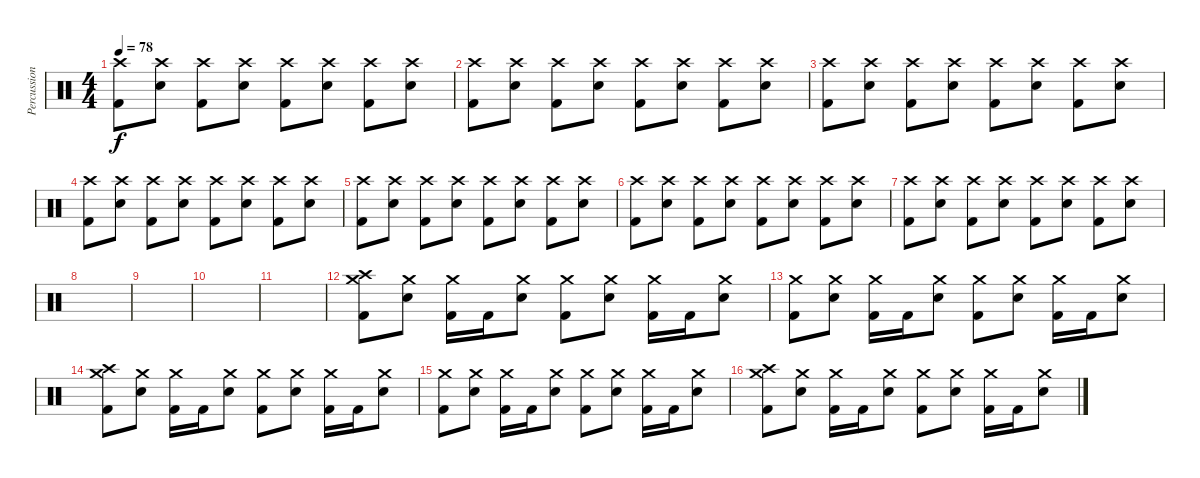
\track ("Percussioni" "Percussion") {instrument percussion}
\staff {score}
\articulation defaults
\ts (4 4)
\tempo 78
\clef neutral
\ks c
("Crash high (hit)" "Kick (hit) 2").8{dy f} ("Crash high (hit)" "Snare (hit) 2").8 ("Crash high (hit)" "Kick (hit) 2").8 ("Crash high (hit)" "Snare (hit) 2").8 ("Crash high (hit)" "Kick (hit) 2").8 ("Crash high (hit)" "Snare (hit) 2").8 ("Crash high (hit)" "Kick (hit) 2").8 ("Crash high (hit)" "Snare (hit) 2").8 |
("Crash high (hit)" "Kick (hit) 2").8 ("Crash high (hit)" "Snare (hit) 2").8 ("Crash high (hit)" "Kick (hit) 2").8 ("Crash high (hit)" "Snare (hit) 2").8 ("Crash high (hit)" "Kick (hit) 2").8 ("Crash high (hit)" "Snare (hit) 2").8 ("Crash high (hit)" "Kick (hit) 2").8 ("Crash high (hit)" "Snare (hit) 2").8 |
("Crash high (hit)" "Kick (hit) 2").8 ("Crash high (hit)" "Snare (hit) 2").8 ("Crash high (hit)" "Kick (hit) 2").8 ("Crash high (hit)" "Snare (hit) 2").8 ("Crash high (hit)" "Kick (hit) 2").8 ("Crash high (hit)" "Snare (hit) 2").8 ("Crash high (hit)" "Kick (hit) 2").8 ("Crash high (hit)" "Snare (hit) 2").8 |
("Crash high (hit)" "Kick (hit) 2").8 ("Crash high (hit)" "Snare (hit) 2").8 ("Crash high (hit)" "Kick (hit) 2").8 ("Crash high (hit)" "Snare (hit) 2").8 ("Crash high (hit)" "Kick (hit) 2").8 ("Crash high (hit)" "Snare (hit) 2").8 ("Crash high (hit)" "Kick (hit) 2").8 ("Crash high (hit)" "Snare (hit) 2").8 |
("Crash high (hit)" "Kick (hit) 2").8 ("Crash high (hit)" "Snare (hit) 2").8 ("Crash high (hit)" "Kick (hit) 2").8 ("Crash high (hit)" "Snare (hit) 2").8 ("Crash high (hit)" "Kick (hit) 2").8 ("Crash high (hit)" "Snare (hit) 2").8 ("Crash high (hit)" "Kick (hit) 2").8 ("Crash high (hit)" "Snare (hit) 2").8 |
("Crash high (hit)" "Kick (hit) 2").8 ("Crash high (hit)" "Snare (hit) 2").8 ("Crash high (hit)" "Kick (hit) 2").8 ("Crash high (hit)" "Snare (hit) 2").8 ("Crash high (hit)" "Kick (hit) 2").8 ("Crash high (hit)" "Snare (hit) 2").8 ("Crash high (hit)" "Kick (hit) 2").8 ("Crash high (hit)" "Snare (hit) 2").8 |
("Crash high (hit)" "Kick (hit) 2").8 ("Crash high (hit)" "Snare (hit) 2").8 ("Crash high (hit)" "Kick (hit) 2").8 ("Crash high (hit)" "Snare (hit) 2").8 ("Crash high (hit)" "Kick (hit) 2").8 ("Crash high (hit)" "Snare (hit) 2").8 ("Crash high (hit)" "Kick (hit) 2").8 ("Crash high (hit)" "Snare (hit) 2").8 |
|
|
|
|
("Crash high (hit)" "Crash medium (hit)" "Kick (hit) 2").8 ("Crash medium (hit)" "Snare (hit) 2").8 ("Crash medium (hit)" "Kick (hit) 2").16 "Kick (hit) 2".16 ("Crash medium (hit)" "Snare (hit) 2").8 ("Crash medium (hit)" "Kick (hit) 2").8 ("Crash medium (hit)" "Snare (hit) 2").8 ("Crash medium (hit)" "Kick (hit) 2").16 "Kick (hit) 2".16 ("Crash medium (hit)" "Snare (hit) 2").8 |
("Crash medium (hit)" "Kick (hit) 2").8 ("Crash medium (hit)" "Snare (hit) 2").8 ("Crash medium (hit)" "Kick (hit) 2").16 "Kick (hit) 2".16 ("Crash medium (hit)" "Snare (hit) 2").8 ("Crash medium (hit)" "Kick (hit) 2").8 ("Crash medium (hit)" "Snare (hit) 2").8 ("Crash medium (hit)" "Kick (hit) 2").16 "Kick (hit) 2".16 ("Crash medium (hit)" "Snare (hit) 2").8 |
("Crash high (hit)" "Crash medium (hit)" "Kick (hit) 2").8 ("Crash medium (hit)" "Snare (hit) 2").8 ("Crash medium (hit)" "Kick (hit) 2").16 "Kick (hit) 2".16 ("Crash medium (hit)" "Snare (hit) 2").8 ("Crash medium (hit)" "Kick (hit) 2").8 ("Crash medium (hit)" "Snare (hit) 2").8 ("Crash medium (hit)" "Kick (hit) 2").16 "Kick (hit) 2".16 ("Crash medium (hit)" "Snare (hit) 2").8 |
("Crash medium (hit)" "Kick (hit) 2").8 ("Crash medium (hit)" "Snare (hit) 2").8 ("Crash medium (hit)" "Kick (hit) 2").16 "Kick (hit) 2".16 ("Crash medium (hit)" "Snare (hit) 2").8 ("Crash medium (hit)" "Kick (hit) 2").8 ("Crash medium (hit)" "Snare (hit) 2").8 ("Crash medium (hit)" "Kick (hit) 2").16 "Kick (hit) 2".16 ("Crash medium (hit)" "Snare (hit) 2").8 |
("Crash high (hit)" "Crash medium (hit)" "Kick (hit) 2").8 ("Crash medium (hit)" "Snare (hit) 2").8 ("Crash medium (hit)" "Kick (hit) 2").16 "Kick (hit) 2".16 ("Crash medium (hit)" "Snare (hit) 2").8 ("Crash medium (hit)" "Kick (hit) 2").8 ("Crash medium (hit)" "Snare (hit) 2").8 ("Crash medium (hit)" "Kick (hit) 2").16 "Kick (hit) 2".16 ("Crash medium (hit)" "Snare (hit) 2").8
